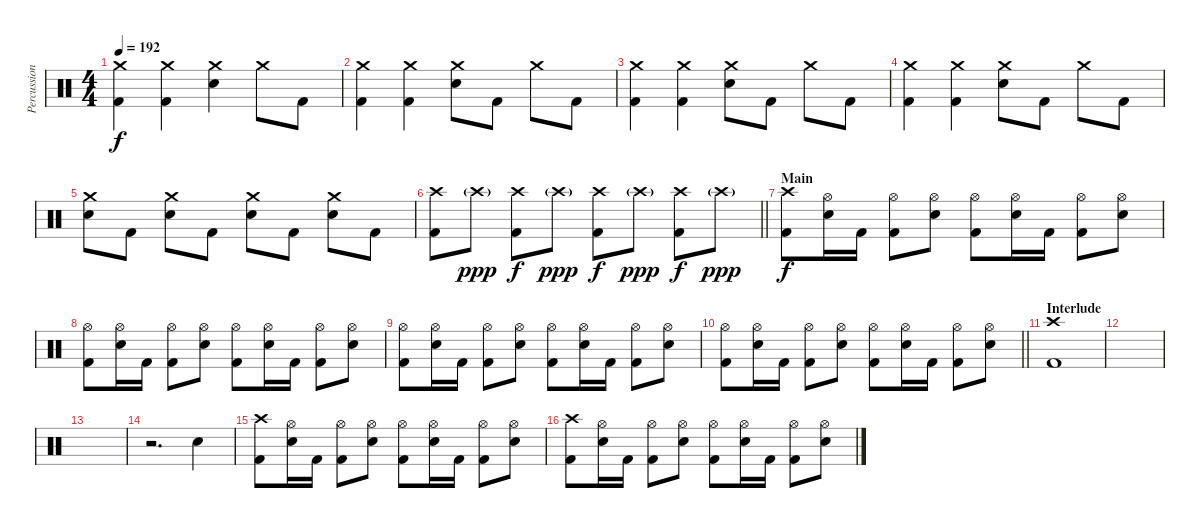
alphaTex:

\track ("Percussion" "Percussion") {instrument percussion}
\staff {score}
\articulation defaults
\ts (4 4)
\tempo 192
\clef neutral
\ks c
("Crash medium (hit)" "Kick (hit) 2").4{dy f} ("Crash medium (hit)" "Kick (hit) 2").4 ("Crash medium (hit)" "Electric Snare (hit)").4 "Crash medium (hit)".8 "Kick (hit) 2".8 |
("Crash medium (hit)" "Kick (hit) 2").4 ("Crash medium (hit)" "Kick (hit) 2").4 ("Crash medium (hit)" "Electric Snare (hit)").8 "Kick (hit) 2".8 "Crash medium (hit)".8 "Kick (hit) 2".8 |
("Crash medium (hit)" "Kick (hit) 2").4 ("Crash medium (hit)" "Kick (hit) 2").4 ("Crash medium (hit)" "Electric Snare (hit)").8 "Kick (hit) 2".8 "Crash medium (hit)".8 "Kick (hit) 2".8 |
("Crash medium (hit)" "Kick (hit) 2").4 ("Crash medium (hit)" "Kick (hit) 2").4 ("Crash medium (hit)" "Electric Snare (hit)").8 "Kick (hit) 2".8 "Crash medium (hit)".8 "Kick (hit) 2".8 |
("Crash medium (hit)" "Electric Snare (hit)").8 "Kick (hit) 2".8 ("Crash medium (hit)" "Electric Snare (hit)").8 "Kick (hit) 2".8 ("Crash medium (hit)" "Electric Snare (hit)").8 "Kick (hit) 2".8 ("Crash medium (hit)" "Electric Snare (hit)").8 "Kick (hit) 2".8 |
\barLineRight lightlight
("Crash high (hit)" "Kick (hit) 2").8 "Crash high (hit)"{g}.8{dy ppp} ("Crash high (hit)" "Kick (hit) 2").8{dy f} "Crash high (hit)"{g}.8{dy ppp} ("Crash high (hit)" "Kick (hit) 2").8{dy f} "Crash high (hit)"{g}.8{dy ppp} ("Crash high (hit)" "Kick (hit) 2").8{dy f} "Crash high (hit)"{g}.8{dy ppp} |
\section ("" "Main")
("Crash high (hit)" "Kick (hit) 2").8{dy f} ("Hi-Hat (open)" "Electric Snare (hit)").16 "Kick (hit) 2".16 ("Hi-Hat (open)" "Kick (hit) 2").8 ("Hi-Hat (open)" "Electric Snare (hit)").8 ("Hi-Hat (open)" "Kick (hit) 2").8 ("Hi-Hat (open)" "Electric Snare (hit)").16 "Kick (hit) 2".16 ("Hi-Hat (open)" "Kick (hit) 2").8 ("Hi-Hat (open)" "Electric Snare (hit)").8 |
("Hi-Hat (open)" "Kick (hit) 2").8 ("Hi-Hat (open)" "Electric Snare (hit)").16 "Kick (hit) 2".16 ("Hi-Hat (open)" "Kick (hit) 2").8 ("Hi-Hat (open)" "Electric Snare (hit)").8 ("Hi-Hat (open)" "Kick (hit) 2").8 ("Hi-Hat (open)" "Electric Snare (hit)").16 "Kick (hit) 2".16 ("Hi-Hat (open)" "Kick (hit) 2").8 ("Hi-Hat (open)" "Electric Snare (hit)").8 |
("Hi-Hat (open)" "Kick (hit) 2").8 ("Hi-Hat (open)" "Electric Snare (hit)").16 "Kick (hit) 2".16 ("Hi-Hat (open)" "Kick (hit) 2").8 ("Hi-Hat (open)" "Electric Snare (hit)").8 ("Hi-Hat (open)" "Kick (hit) 2").8 ("Hi-Hat (open)" "Electric Snare (hit)").16 "Kick (hit) 2".16 ("Hi-Hat (open)" "Kick (hit) 2").8 ("Hi-Hat (open)" "Electric Snare (hit)").8 |
\barLineRight lightlight
("Hi-Hat (open)" "Kick (hit) 2").8 ("Hi-Hat (open)" "Electric Snare (hit)").16 "Kick (hit) 2".16 ("Hi-Hat (open)" "Kick (hit) 2").8 ("Hi-Hat (open)" "Electric Snare (hit)").8 ("Hi-Hat (open)" "Kick (hit) 2").8 ("Hi-Hat (open)" "Electric Snare (hit)").16 "Kick (hit) 2".16 ("Hi-Hat (open)" "Kick (hit) 2").8 ("Hi-Hat (open)" "Electric Snare (hit)").8 |
\section ("" "Interlude")
("Crash high (hit)" "Kick (hit) 2").1 |
|
|
r.2{d} "Electric Snare (hit)".4 |
("Crash high (hit)" "Kick (hit) 2").8 ("Hi-Hat (open)" "Electric Snare (hit)").16 "Kick (hit) 2".16 ("Hi-Hat (open)" "Kick (hit) 2").8 ("Hi-Hat (open)" "Electric Snare (hit)").8 ("Hi-Hat (open)" "Kick (hit) 2").8 ("Hi-Hat (open)" "Electric Snare (hit)").16 "Kick (hit) 2".16 ("Hi-Hat (open)" "Kick (hit) 2").8 ("Hi-Hat (open)" "Electric Snare (hit)").8 |
("Crash high (hit)" "Kick (hit) 2").8 ("Hi-Hat (open)" "Electric Snare (hit)").16 "Kick (hit) 2".16 ("Hi-Hat (open)" "Kick (hit) 2").8 ("Hi-Hat (open)" "Electric Snare (hit)").8 ("Hi-Hat (open)" "Kick (hit) 2").8 ("Hi-Hat (open)" "Electric Snare (hit)").16 "Kick (hit) 2".16 ("Hi-Hat (open)" "Kick (hit) 2").8 ("Hi-Hat (open)" "Electric Snare (hit)").8
